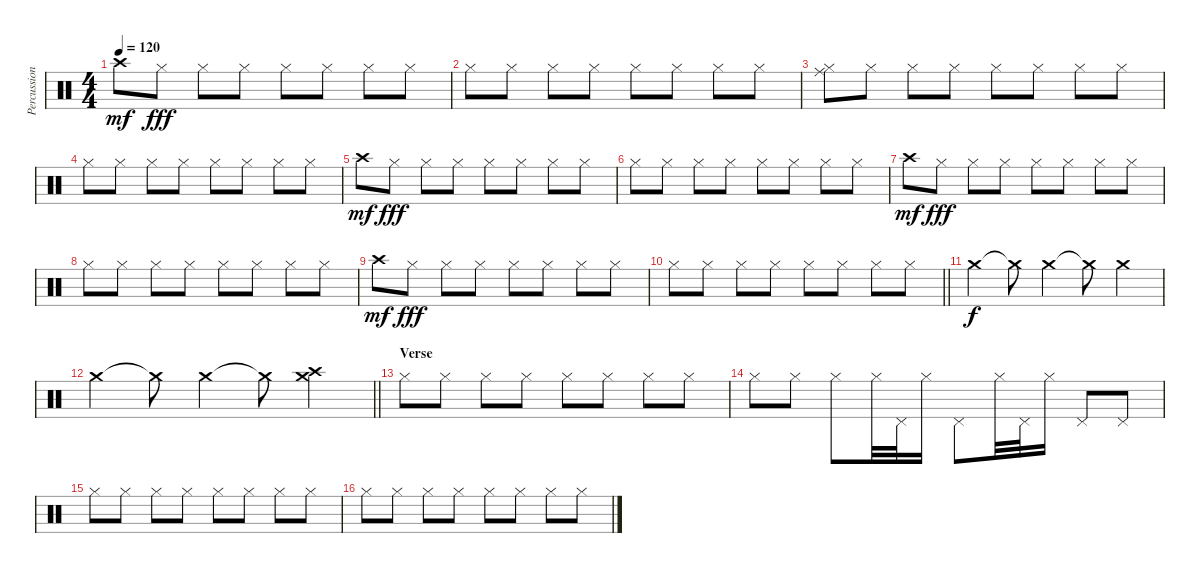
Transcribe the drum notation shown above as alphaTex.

\track ("Percussion 2" "Percussion") {instrument percussion}
\staff {score}
\articulation defaults
\ts (4 4)
\tempo 120
\clef neutral
\ks c "Crash high (hit)".8{dy mf} "Hi-Hat (closed)".8{dy fff} "Hi-Hat (closed)".8 "Hi-Hat (closed)".8 "Hi-Hat (closed)".8 "Hi-Hat (closed)".8 "Hi-Hat (closed)".8 "Hi-Hat (closed)".8
|
"Hi-Hat (closed)".8 "Hi-Hat (closed)".8 "Hi-Hat (closed)".8 "Hi-Hat (closed)".8 "Hi-Hat (closed)".8 "Hi-Hat (closed)".8 "Hi-Hat (closed)".8 "Hi-Hat (closed)".8 |
("Hi-Hat (closed)" "Ride (middle)").8 "Hi-Hat (closed)".8 "Hi-Hat (closed)".8 "Hi-Hat (closed)".8 "Hi-Hat (closed)".8 "Hi-Hat (closed)".8 "Hi-Hat (closed)".8 "Hi-Hat (closed)".8 |
"Hi-Hat (closed)".8 "Hi-Hat (closed)".8 "Hi-Hat (closed)".8 "Hi-Hat (closed)".8 "Hi-Hat (closed)".8 "Hi-Hat (closed)".8 "Hi-Hat (closed)".8 "Hi-Hat (closed)".8 |
"Crash high (hit)".8{dy mf} "Hi-Hat (closed)".8{dy fff} "Hi-Hat (closed)".8 "Hi-Hat (closed)".8 "Hi-Hat (closed)".8 "Hi-Hat (closed)".8 "Hi-Hat (closed)".8 "Hi-Hat (closed)".8 |
"Hi-Hat (closed)".8 "Hi-Hat (closed)".8 "Hi-Hat (closed)".8 "Hi-Hat (closed)".8 "Hi-Hat (closed)".8 "Hi-Hat (closed)".8 "Hi-Hat (closed)".8 "Hi-Hat (closed)".8 |
"Crash high (hit)".8{dy mf} "Hi-Hat (closed)".8{dy fff} "Hi-Hat (closed)".8 "Hi-Hat (closed)".8 "Hi-Hat (closed)".8 "Hi-Hat (closed)".8 "Hi-Hat (closed)".8 "Hi-Hat (closed)".8 |
"Hi-Hat (closed)".8 "Hi-Hat (closed)".8 "Hi-Hat (closed)".8 "Hi-Hat (closed)".8 "Hi-Hat (closed)".8 "Hi-Hat (closed)".8 "Hi-Hat (closed)".8 "Hi-Hat (closed)".8 |
"Crash high (hit)".8{dy mf} "Hi-Hat (closed)".8{dy fff} "Hi-Hat (closed)".8 "Hi-Hat (closed)".8 "Hi-Hat (closed)".8 "Hi-Hat (closed)".8 "Hi-Hat (closed)".8 "Hi-Hat (closed)".8 |
\barLineRight lightlight "Hi-Hat (closed)".8 "Hi-Hat (closed)".8 "Hi-Hat (closed)".8 "Hi-Hat (closed)".8 "Hi-Hat (closed)".8 "Hi-Hat (closed)".8 "Hi-Hat (closed)".8 "Hi-Hat (closed)".8
|
\section ("" "")
"Crash medium (hit)".4{dy f} "Crash medium (hit)"{t}.8 "Crash medium (hit)".4 "Crash medium (hit)"{t}.8 "Crash medium (hit)".4 |
\barLineRight lightlight "Crash medium (hit)".4 "Crash medium (hit)"{t}.8 "Crash medium (hit)".4 "Crash medium (hit)"{t}.8
("Crash high (hit)" "Crash medium (hit)").4 |
\section ("" "Verse")
"Hi-Hat (closed)".8 "Hi-Hat (closed)".8 "Hi-Hat (closed)".8 "Hi-Hat (closed)".8 "Hi-Hat (closed)".8 "Hi-Hat (closed)".8 "Hi-Hat (closed)".8 "Hi-Hat (closed)".8 |
"Hi-Hat (closed)".8 "Hi-Hat (closed)".8 "Hi-Hat (closed)".8 "Hi-Hat (closed)".32 "Pedal Hi-Hat (hit)".32 "Hi-Hat (closed)".16 "Pedal Hi-Hat (hit)".8 "Hi-Hat (closed)".32 "Pedal Hi-Hat (hit)".32 "Hi-Hat (closed)".16 "Pedal Hi-Hat (hit)".8 "Pedal Hi-Hat (hit)".8 |
"Hi-Hat (closed)".8 "Hi-Hat (closed)".8 "Hi-Hat (closed)".8 "Hi-Hat (closed)".8 "Hi-Hat (closed)".8 "Hi-Hat (closed)".8 "Hi-Hat (closed)".8 "Hi-Hat (closed)".8 |
"Hi-Hat (closed)".8 "Hi-Hat (closed)".8 "Hi-Hat (closed)".8 "Hi-Hat (closed)".8 "Hi-Hat (closed)".8 "Hi-Hat (closed)".8 "Hi-Hat (closed)".8 "Hi-Hat (closed)".8
